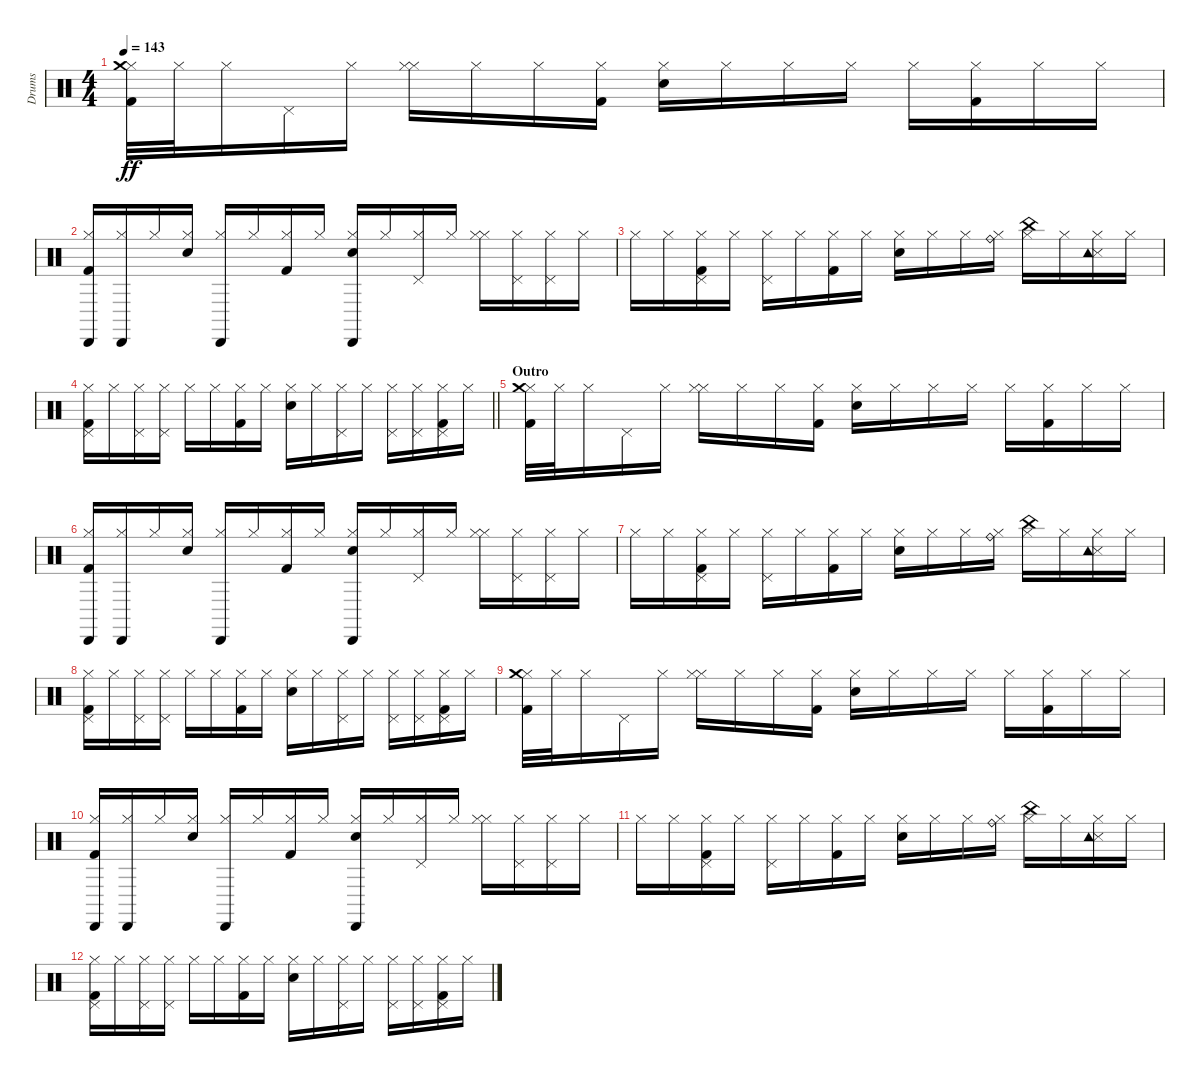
\track ("Drums" "Drums") {instrument percussion}
\staff {score}
\articulation defaults
\ts (4 4)
\tempo 143
\clef neutral
\ks c
("Kick (hit) 2" "Hi-Hat (closed)" "Crash medium (hit)").32{dy ff} "Hi-Hat (closed)".32 "Hi-Hat (closed)".16 "Pedal Hi-Hat (hit)".16 "Hi-Hat (closed)".16 ("Hi-Hat (closed)" "Hi-Hat (closed)").16 "Hi-Hat (closed)".16 "Hi-Hat (closed)".16 ("Kick (hit) 2" "Hi-Hat (closed)").16 ("Snare (hit) 2" "Hi-Hat (closed)").16 "Hi-Hat (closed)".16 "Hi-Hat (closed)".16 "Hi-Hat (closed)".16 "Hi-Hat (closed)".16 ("Kick (hit) 2" "Hi-Hat (closed)").16 "Hi-Hat (closed)".16 "Hi-Hat (closed)".16 |
("Kick (hit) 2" "Cabasa (hit)" "Hi-Hat (closed)").16 ("Cabasa (hit)" "Hi-Hat (closed)").16 "Hi-Hat (closed)".16 ("Snare (hit) 2" "Hi-Hat (closed)").16 ("Cabasa (hit)" "Hi-Hat (closed)").16 "Hi-Hat (closed)".16 ("Kick (hit) 2" "Hi-Hat (closed)").16 "Hi-Hat (closed)".16 ("Snare (hit) 2" "Cabasa (hit)" "Hi-Hat (closed)").16 "Hi-Hat (closed)".16 ("Pedal Hi-Hat (hit)" "Hi-Hat (closed)").16 "Hi-Hat (closed)".16 ("Hi-Hat (closed)" "Hi-Hat (closed)").16 ("Pedal Hi-Hat (hit)" "Hi-Hat (closed)").16 ("Pedal Hi-Hat (hit)" "Hi-Hat (closed)").16 "Hi-Hat (closed)".16 |
"Hi-Hat (closed)".16 "Hi-Hat (closed)".16 ("Kick (hit) 2" "Pedal Hi-Hat (hit)" "Hi-Hat (closed)").16 "Hi-Hat (closed)".16 ("Hi-Hat (closed)" "Pedal Hi-Hat (hit)").16 "Hi-Hat (closed)".16 ("Kick (hit) 2" "Hi-Hat (closed)").16 "Hi-Hat (closed)".16 ("Snare (hit) 2" "Hi-Hat (closed)").16 "Hi-Hat (closed)".16 "Hi-Hat (closed)".16 ("Ride (bell)" "Hi-Hat (closed)").16 ("China (hit)" "Hi-Hat (closed)").16 "Hi-Hat (closed)".16 ("Snare (side stick) 3" "Tambourine (hit)" "Hi-Hat (closed)").16 "Hi-Hat (closed)".16 |
\barLineRight lightlight
("Kick (hit) 2" "Hi-Hat (closed)" "Pedal Hi-Hat (hit)").16 "Hi-Hat (closed)".16 ("Hi-Hat (closed)" "Pedal Hi-Hat (hit)").16 ("Hi-Hat (closed)" "Pedal Hi-Hat (hit)").16 "Hi-Hat (closed)".16 "Hi-Hat (closed)".16 ("Kick (hit) 2" "Hi-Hat (closed)").16 "Hi-Hat (closed)".16 ("Snare (hit) 2" "Hi-Hat (closed)").16 "Hi-Hat (closed)".16 ("Hi-Hat (closed)" "Pedal Hi-Hat (hit)").16 "Hi-Hat (closed)".16 ("Hi-Hat (closed)" "Pedal Hi-Hat (hit)").16 ("Hi-Hat (closed)" "Pedal Hi-Hat (hit)").16 ("Kick (hit) 2" "Hi-Hat (closed)" "Pedal Hi-Hat (hit)").16 "Hi-Hat (closed)".16 |
\section ("" "Outro")
("Kick (hit) 2" "Hi-Hat (closed)" "Crash medium (hit)").32 "Hi-Hat (closed)".32 "Hi-Hat (closed)".16 "Pedal Hi-Hat (hit)".16 "Hi-Hat (closed)".16 ("Hi-Hat (closed)" "Hi-Hat (closed)").16 "Hi-Hat (closed)".16 "Hi-Hat (closed)".16 ("Kick (hit) 2" "Hi-Hat (closed)").16 ("Snare (hit) 2" "Hi-Hat (closed)").16 "Hi-Hat (closed)".16 "Hi-Hat (closed)".16 "Hi-Hat (closed)".16 "Hi-Hat (closed)".16 ("Kick (hit) 2" "Hi-Hat (closed)").16 "Hi-Hat (closed)".16 "Hi-Hat (closed)".16 |
("Kick (hit) 2" "Cabasa (hit)" "Hi-Hat (closed)").16 ("Cabasa (hit)" "Hi-Hat (closed)").16 "Hi-Hat (closed)".16 ("Snare (hit) 2" "Hi-Hat (closed)").16 ("Cabasa (hit)" "Hi-Hat (closed)").16 "Hi-Hat (closed)".16 ("Kick (hit) 2" "Hi-Hat (closed)").16 "Hi-Hat (closed)".16 ("Snare (hit) 2" "Cabasa (hit)" "Hi-Hat (closed)").16 "Hi-Hat (closed)".16 ("Pedal Hi-Hat (hit)" "Hi-Hat (closed)").16 "Hi-Hat (closed)".16 ("Hi-Hat (closed)" "Hi-Hat (closed)").16 ("Pedal Hi-Hat (hit)" "Hi-Hat (closed)").16 ("Pedal Hi-Hat (hit)" "Hi-Hat (closed)").16 "Hi-Hat (closed)".16 |
"Hi-Hat (closed)".16 "Hi-Hat (closed)".16 ("Kick (hit) 2" "Pedal Hi-Hat (hit)" "Hi-Hat (closed)").16 "Hi-Hat (closed)".16 ("Hi-Hat (closed)" "Pedal Hi-Hat (hit)").16 "Hi-Hat (closed)".16 ("Kick (hit) 2" "Hi-Hat (closed)").16 "Hi-Hat (closed)".16 ("Snare (hit) 2" "Hi-Hat (closed)").16 "Hi-Hat (closed)".16 "Hi-Hat (closed)".16 ("Ride (bell)" "Hi-Hat (closed)").16 ("China (hit)" "Hi-Hat (closed)").16 "Hi-Hat (closed)".16 ("Snare (side stick) 3" "Tambourine (hit)" "Hi-Hat (closed)").16 "Hi-Hat (closed)".16 |
("Kick (hit) 2" "Hi-Hat (closed)" "Pedal Hi-Hat (hit)").16 "Hi-Hat (closed)".16 ("Hi-Hat (closed)" "Pedal Hi-Hat (hit)").16 ("Hi-Hat (closed)" "Pedal Hi-Hat (hit)").16 "Hi-Hat (closed)".16 "Hi-Hat (closed)".16 ("Kick (hit) 2" "Hi-Hat (closed)").16 "Hi-Hat (closed)".16 ("Snare (hit) 2" "Hi-Hat (closed)").16 "Hi-Hat (closed)".16 ("Hi-Hat (closed)" "Pedal Hi-Hat (hit)").16 "Hi-Hat (closed)".16 ("Hi-Hat (closed)" "Pedal Hi-Hat (hit)").16 ("Hi-Hat (closed)" "Pedal Hi-Hat (hit)").16 ("Kick (hit) 2" "Hi-Hat (closed)" "Pedal Hi-Hat (hit)").16 "Hi-Hat (closed)".16 |
("Kick (hit) 2" "Hi-Hat (closed)" "Crash medium (hit)").32 "Hi-Hat (closed)".32 "Hi-Hat (closed)".16 "Pedal Hi-Hat (hit)".16 "Hi-Hat (closed)".16 ("Hi-Hat (closed)" "Hi-Hat (closed)").16 "Hi-Hat (closed)".16 "Hi-Hat (closed)".16 ("Kick (hit) 2" "Hi-Hat (closed)").16 ("Snare (hit) 2" "Hi-Hat (closed)").16 "Hi-Hat (closed)".16 "Hi-Hat (closed)".16 "Hi-Hat (closed)".16 "Hi-Hat (closed)".16 ("Kick (hit) 2" "Hi-Hat (closed)").16 "Hi-Hat (closed)".16 "Hi-Hat (closed)".16 |
("Kick (hit) 2" "Cabasa (hit)" "Hi-Hat (closed)").16 ("Cabasa (hit)" "Hi-Hat (closed)").16 "Hi-Hat (closed)".16 ("Snare (hit) 2" "Hi-Hat (closed)").16 ("Cabasa (hit)" "Hi-Hat (closed)").16 "Hi-Hat (closed)".16 ("Kick (hit) 2" "Hi-Hat (closed)").16 "Hi-Hat (closed)".16 ("Snare (hit) 2" "Cabasa (hit)" "Hi-Hat (closed)").16 "Hi-Hat (closed)".16 ("Pedal Hi-Hat (hit)" "Hi-Hat (closed)").16 "Hi-Hat (closed)".16 ("Hi-Hat (closed)" "Hi-Hat (closed)").16 ("Pedal Hi-Hat (hit)" "Hi-Hat (closed)").16 ("Pedal Hi-Hat (hit)" "Hi-Hat (closed)").16 "Hi-Hat (closed)".16 |
"Hi-Hat (closed)".16 "Hi-Hat (closed)".16 ("Kick (hit) 2" "Pedal Hi-Hat (hit)" "Hi-Hat (closed)").16 "Hi-Hat (closed)".16 ("Hi-Hat (closed)" "Pedal Hi-Hat (hit)").16 "Hi-Hat (closed)".16 ("Kick (hit) 2" "Hi-Hat (closed)").16 "Hi-Hat (closed)".16 ("Snare (hit) 2" "Hi-Hat (closed)").16 "Hi-Hat (closed)".16 "Hi-Hat (closed)".16 ("Ride (bell)" "Hi-Hat (closed)").16 ("China (hit)" "Hi-Hat (closed)").16 "Hi-Hat (closed)".16 ("Snare (side stick) 3" "Tambourine (hit)" "Hi-Hat (closed)").16 "Hi-Hat (closed)".16 |
("Kick (hit) 2" "Hi-Hat (closed)" "Pedal Hi-Hat (hit)").16 "Hi-Hat (closed)".16 ("Hi-Hat (closed)" "Pedal Hi-Hat (hit)").16 ("Hi-Hat (closed)" "Pedal Hi-Hat (hit)").16 "Hi-Hat (closed)".16 "Hi-Hat (closed)".16 ("Kick (hit) 2" "Hi-Hat (closed)").16 "Hi-Hat (closed)".16 ("Snare (hit) 2" "Hi-Hat (closed)").16 "Hi-Hat (closed)".16 ("Hi-Hat (closed)" "Pedal Hi-Hat (hit)").16 "Hi-Hat (closed)".16 ("Hi-Hat (closed)" "Pedal Hi-Hat (hit)").16 ("Hi-Hat (closed)" "Pedal Hi-Hat (hit)").16 ("Kick (hit) 2" "Hi-Hat (closed)" "Pedal Hi-Hat (hit)").16 "Hi-Hat (closed)".16
